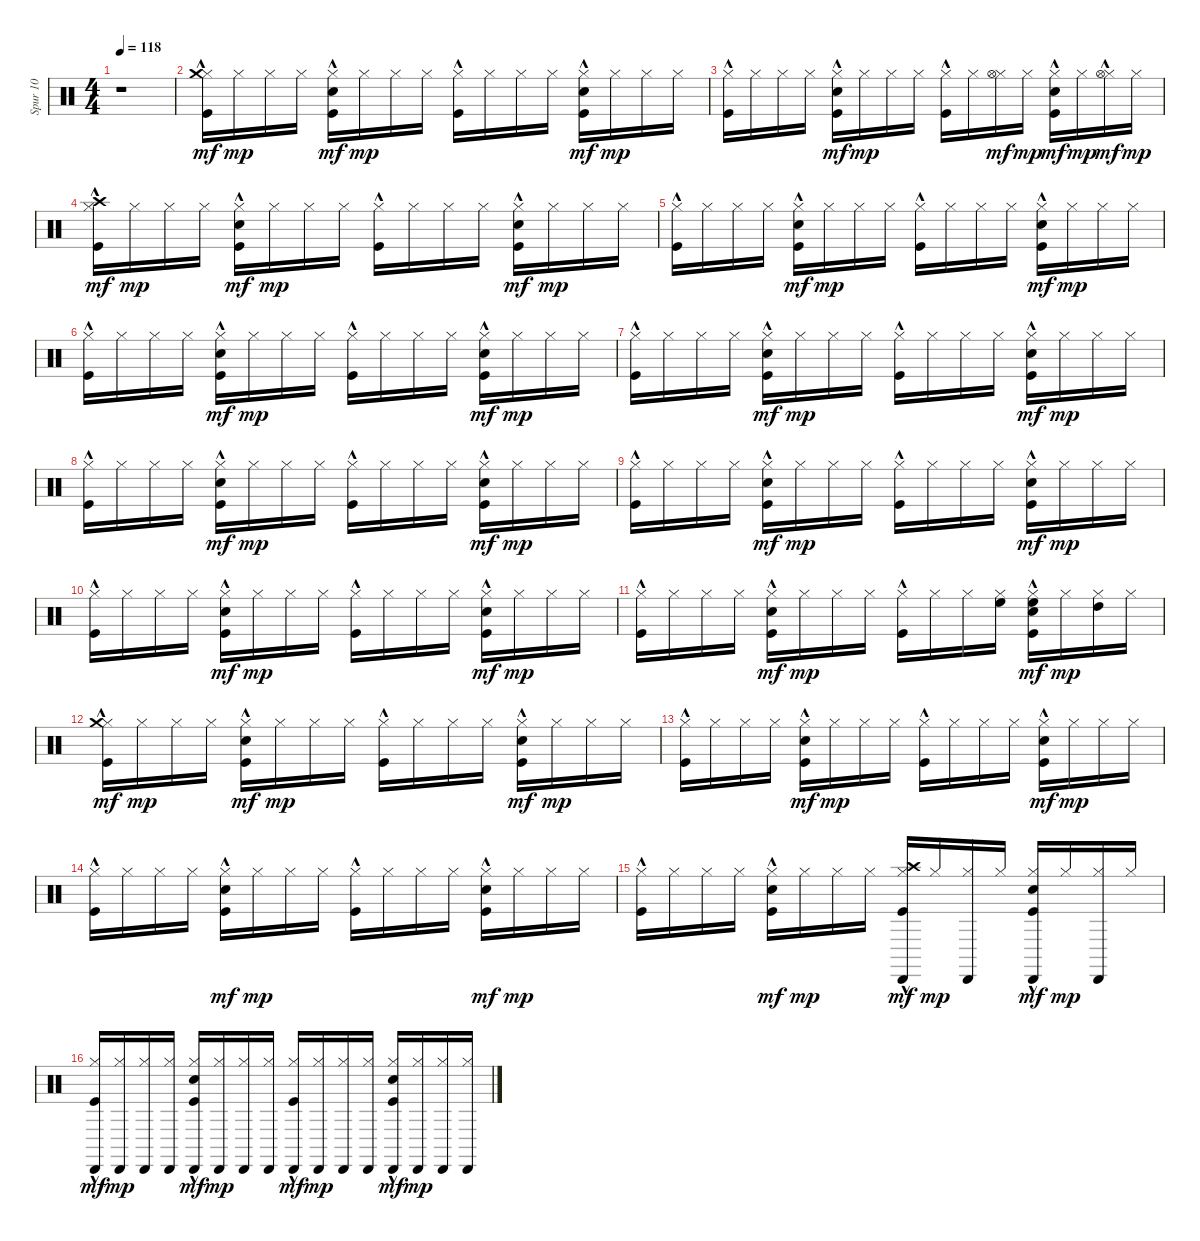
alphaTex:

\track ("Spur 10" "Spur 10") {instrument percussion}
\staff {score}
\articulation defaults
\ts (4 4)
\tempo 118
\clef neutral
\ks c
r.1{dy mf} |
("Hi-Hat (closed)" "Kick (hit)"{hac} "Crash medium (hit)"{hac}).16 "Hi-Hat (closed)".16{dy mp} "Hi-Hat (closed)".16 "Hi-Hat (closed)".16 ("Hi-Hat (closed)" "Kick (hit)"{hac} "Electric Snare (hit)").16{dy mf} "Hi-Hat (closed)".16{dy mp} "Hi-Hat (closed)".16 "Hi-Hat (closed)".16 ("Hi-Hat (closed)" "Kick (hit)"{hac}).16 "Hi-Hat (closed)".16 "Hi-Hat (closed)".16 "Hi-Hat (closed)".16 ("Hi-Hat (closed)" "Kick (hit)"{hac} "Electric Snare (hit)").16{dy mf} "Hi-Hat (closed)".16{dy mp} "Hi-Hat (closed)".16 "Hi-Hat (closed)".16 |
("Hi-Hat (closed)" "Kick (hit)"{hac}).16 "Hi-Hat (closed)".16 "Hi-Hat (closed)".16 "Hi-Hat (closed)".16 ("Hi-Hat (closed)" "Kick (hit)"{hac} "Electric Snare (hit)").16{dy mf} "Hi-Hat (closed)".16{dy mp} "Hi-Hat (closed)".16 "Hi-Hat (closed)".16 ("Hi-Hat (closed)" "Kick (hit)"{hac}).16 "Hi-Hat (closed)".16 ("Hi-Hat (closed)" "Hi-Hat (open)").16{dy mf} "Hi-Hat (closed)".16{dy mp} ("Hi-Hat (closed)" "Kick (hit)"{hac} "Electric Snare (hit)").16{dy mf} "Hi-Hat (closed)".16{dy mp} ("Hi-Hat (closed)" "Hi-Hat (open)"{hac}).16{dy mf} "Hi-Hat (closed)".16{dy mp} |
("Hi-Hat (closed)" "Kick (hit)"{hac} "Crash high (hit)"{hac}).16{dy mf} "Hi-Hat (closed)".16{dy mp} "Hi-Hat (closed)".16 "Hi-Hat (closed)".16 ("Hi-Hat (closed)" "Kick (hit)"{hac} "Electric Snare (hit)").16{dy mf} "Hi-Hat (closed)".16{dy mp} "Hi-Hat (closed)".16 "Hi-Hat (closed)".16 ("Hi-Hat (closed)" "Kick (hit)"{hac}).16 "Hi-Hat (closed)".16 "Hi-Hat (closed)".16 "Hi-Hat (closed)".16 ("Hi-Hat (closed)" "Kick (hit)"{hac} "Electric Snare (hit)").16{dy mf} "Hi-Hat (closed)".16{dy mp} "Hi-Hat (closed)".16 "Hi-Hat (closed)".16 |
("Hi-Hat (closed)" "Kick (hit)"{hac}).16 "Hi-Hat (closed)".16 "Hi-Hat (closed)".16 "Hi-Hat (closed)".16 ("Hi-Hat (closed)" "Kick (hit)"{hac} "Electric Snare (hit)").16{dy mf} "Hi-Hat (closed)".16{dy mp} "Hi-Hat (closed)".16 "Hi-Hat (closed)".16 ("Hi-Hat (closed)" "Kick (hit)"{hac}).16 "Hi-Hat (closed)".16 "Hi-Hat (closed)".16 "Hi-Hat (closed)".16 ("Hi-Hat (closed)" "Kick (hit)"{hac} "Electric Snare (hit)").16{dy mf} "Hi-Hat (closed)".16{dy mp} "Hi-Hat (closed)".16 "Hi-Hat (closed)".16 |
("Hi-Hat (closed)" "Kick (hit)"{hac}).16 "Hi-Hat (closed)".16 "Hi-Hat (closed)".16 "Hi-Hat (closed)".16 ("Hi-Hat (closed)" "Kick (hit)"{hac} "Electric Snare (hit)").16{dy mf} "Hi-Hat (closed)".16{dy mp} "Hi-Hat (closed)".16 "Hi-Hat (closed)".16 ("Hi-Hat (closed)" "Kick (hit)"{hac}).16 "Hi-Hat (closed)".16 "Hi-Hat (closed)".16 "Hi-Hat (closed)".16 ("Hi-Hat (closed)" "Kick (hit)"{hac} "Electric Snare (hit)").16{dy mf} "Hi-Hat (closed)".16{dy mp} "Hi-Hat (closed)".16 "Hi-Hat (closed)".16 |
("Hi-Hat (closed)" "Kick (hit)"{hac}).16 "Hi-Hat (closed)".16 "Hi-Hat (closed)".16 "Hi-Hat (closed)".16 ("Hi-Hat (closed)" "Kick (hit)"{hac} "Electric Snare (hit)").16{dy mf} "Hi-Hat (closed)".16{dy mp} "Hi-Hat (closed)".16 "Hi-Hat (closed)".16 ("Hi-Hat (closed)" "Kick (hit)"{hac}).16 "Hi-Hat (closed)".16 "Hi-Hat (closed)".16 "Hi-Hat (closed)".16 ("Hi-Hat (closed)" "Kick (hit)"{hac} "Electric Snare (hit)").16{dy mf} "Hi-Hat (closed)".16{dy mp} "Hi-Hat (closed)".16 "Hi-Hat (closed)".16 |
("Hi-Hat (closed)" "Kick (hit)"{hac}).16 "Hi-Hat (closed)".16 "Hi-Hat (closed)".16 "Hi-Hat (closed)".16 ("Hi-Hat (closed)" "Kick (hit)"{hac} "Electric Snare (hit)").16{dy mf} "Hi-Hat (closed)".16{dy mp} "Hi-Hat (closed)".16 "Hi-Hat (closed)".16 ("Hi-Hat (closed)" "Kick (hit)"{hac}).16 "Hi-Hat (closed)".16 "Hi-Hat (closed)".16 "Hi-Hat (closed)".16 ("Hi-Hat (closed)" "Kick (hit)"{hac} "Electric Snare (hit)").16{dy mf} "Hi-Hat (closed)".16{dy mp} "Hi-Hat (closed)".16 "Hi-Hat (closed)".16 |
("Hi-Hat (closed)" "Kick (hit)"{hac}).16 "Hi-Hat (closed)".16 "Hi-Hat (closed)".16 "Hi-Hat (closed)".16 ("Hi-Hat (closed)" "Kick (hit)"{hac} "Electric Snare (hit)").16{dy mf} "Hi-Hat (closed)".16{dy mp} "Hi-Hat (closed)".16 "Hi-Hat (closed)".16 ("Hi-Hat (closed)" "Kick (hit)"{hac}).16 "Hi-Hat (closed)".16 "Hi-Hat (closed)".16 "Hi-Hat (closed)".16 ("Hi-Hat (closed)" "Kick (hit)"{hac} "Electric Snare (hit)").16{dy mf} "Hi-Hat (closed)".16{dy mp} "Hi-Hat (closed)".16 "Hi-Hat (closed)".16 |
("Hi-Hat (closed)" "Kick (hit)"{hac}).16 "Hi-Hat (closed)".16 "Hi-Hat (closed)".16 "Hi-Hat (closed)".16 ("Hi-Hat (closed)" "Kick (hit)"{hac} "Electric Snare (hit)").16{dy mf} "Hi-Hat (closed)".16{dy mp} "Hi-Hat (closed)".16 "Hi-Hat (closed)".16 ("Hi-Hat (closed)" "Kick (hit)"{hac}).16 "Hi-Hat (closed)".16 "Hi-Hat (closed)".16 "Hi-Hat (closed)".16 ("Hi-Hat (closed)" "Kick (hit)"{hac} "Electric Snare (hit)").16{dy mf} "Hi-Hat (closed)".16{dy mp} "Hi-Hat (closed)".16 "Hi-Hat (closed)".16 |
("Hi-Hat (closed)" "Kick (hit)"{hac}).16 "Hi-Hat (closed)".16 "Hi-Hat (closed)".16 "Hi-Hat (closed)".16 ("Hi-Hat (closed)" "Kick (hit)"{hac} "Electric Snare (hit)").16{dy mf} "Hi-Hat (closed)".16{dy mp} "Hi-Hat (closed)".16 "Hi-Hat (closed)".16 ("Hi-Hat (closed)" "Kick (hit)"{hac}).16 "Hi-Hat (closed)".16 "Hi-Hat (closed)".16 ("Hi-Hat (closed)" "High Floor Tom (hit)").16 ("High Floor Tom (hit)" "Hi-Hat (closed)" "Kick (hit)"{hac} "Electric Snare (hit)").16{dy mf} "Hi-Hat (closed)".16{dy mp} ("Hi-Hat (closed)" "High Tom (hit)").16 "Hi-Hat (closed)".16 |
("Hi-Hat (closed)" "Kick (hit)"{hac} "Crash medium (hit)"{hac}).16{dy mf} "Hi-Hat (closed)".16{dy mp} "Hi-Hat (closed)".16 "Hi-Hat (closed)".16 ("Hi-Hat (closed)" "Kick (hit)"{hac} "Electric Snare (hit)").16{dy mf} "Hi-Hat (closed)".16{dy mp} "Hi-Hat (closed)".16 "Hi-Hat (closed)".16 ("Hi-Hat (closed)" "Kick (hit)"{hac}).16 "Hi-Hat (closed)".16 "Hi-Hat (closed)".16 "Hi-Hat (closed)".16 ("Hi-Hat (closed)" "Kick (hit)"{hac} "Electric Snare (hit)").16{dy mf} "Hi-Hat (closed)".16{dy mp} "Hi-Hat (closed)".16 "Hi-Hat (closed)".16 |
("Hi-Hat (closed)" "Kick (hit)"{hac}).16 "Hi-Hat (closed)".16 "Hi-Hat (closed)".16 "Hi-Hat (closed)".16 ("Hi-Hat (closed)" "Kick (hit)"{hac} "Electric Snare (hit)").16{dy mf} "Hi-Hat (closed)".16{dy mp} "Hi-Hat (closed)".16 "Hi-Hat (closed)".16 ("Hi-Hat (closed)" "Kick (hit)"{hac}).16 "Hi-Hat (closed)".16 "Hi-Hat (closed)".16 "Hi-Hat (closed)".16 ("Hi-Hat (closed)" "Kick (hit)"{hac} "Electric Snare (hit)").16{dy mf} "Hi-Hat (closed)".16{dy mp} "Hi-Hat (closed)".16 "Hi-Hat (closed)".16 |
("Hi-Hat (closed)" "Kick (hit)"{hac}).16 "Hi-Hat (closed)".16 "Hi-Hat (closed)".16 "Hi-Hat (closed)".16 ("Hi-Hat (closed)" "Kick (hit)"{hac} "Electric Snare (hit)").16{dy mf} "Hi-Hat (closed)".16{dy mp} "Hi-Hat (closed)".16 "Hi-Hat (closed)".16 ("Hi-Hat (closed)" "Kick (hit)"{hac}).16 "Hi-Hat (closed)".16 "Hi-Hat (closed)".16 "Hi-Hat (closed)".16 ("Hi-Hat (closed)" "Kick (hit)"{hac} "Electric Snare (hit)").16{dy mf} "Hi-Hat (closed)".16{dy mp} "Hi-Hat (closed)".16 "Hi-Hat (closed)".16 |
("Hi-Hat (closed)" "Kick (hit)"{hac}).16 "Hi-Hat (closed)".16 "Hi-Hat (closed)".16 "Hi-Hat (closed)".16 ("Hi-Hat (closed)" "Kick (hit)"{hac} "Electric Snare (hit)").16{dy mf} "Hi-Hat (closed)".16{dy mp} "Hi-Hat (closed)".16 "Hi-Hat (closed)".16 ("Hi-Hat (closed)" "Kick (hit)"{hac} "Crash high (hit)"{hac} "Cabasa (hit)").16{dy mf} "Hi-Hat (closed)".16{dy mp} ("Hi-Hat (closed)" "Cabasa (hit)").16 "Hi-Hat (closed)".16 ("Hi-Hat (closed)" "Kick (hit)"{hac} "Electric Snare (hit)" "Cabasa (hit)").16{dy mf} "Hi-Hat (closed)".16{dy mp} ("Hi-Hat (closed)" "Cabasa (hit)").16 "Hi-Hat (closed)".16 |
("Hi-Hat (closed)" "Kick (hit)"{hac} "Cabasa (hit)").16{dy mf} ("Hi-Hat (closed)" "Cabasa (hit)").16{dy mp} ("Hi-Hat (closed)" "Cabasa (hit)").16 ("Hi-Hat (closed)" "Cabasa (hit)").16 ("Hi-Hat (closed)" "Kick (hit)"{hac} "Electric Snare (hit)" "Cabasa (hit)").16{dy mf} ("Hi-Hat (closed)" "Cabasa (hit)").16{dy mp} ("Hi-Hat (closed)" "Cabasa (hit)").16 ("Hi-Hat (closed)" "Cabasa (hit)").16 ("Hi-Hat (closed)" "Kick (hit)"{hac} "Cabasa (hit)").16{dy mf} ("Hi-Hat (closed)" "Cabasa (hit)").16{dy mp} ("Hi-Hat (closed)" "Cabasa (hit)").16 ("Hi-Hat (closed)" "Cabasa (hit)").16 ("Hi-Hat (closed)" "Kick (hit)"{hac} "Electric Snare (hit)" "Cabasa (hit)").16{dy mf} ("Hi-Hat (closed)" "Cabasa (hit)").16{dy mp} ("Hi-Hat (closed)" "Cabasa (hit)").16 ("Hi-Hat (closed)" "Cabasa (hit)").16
